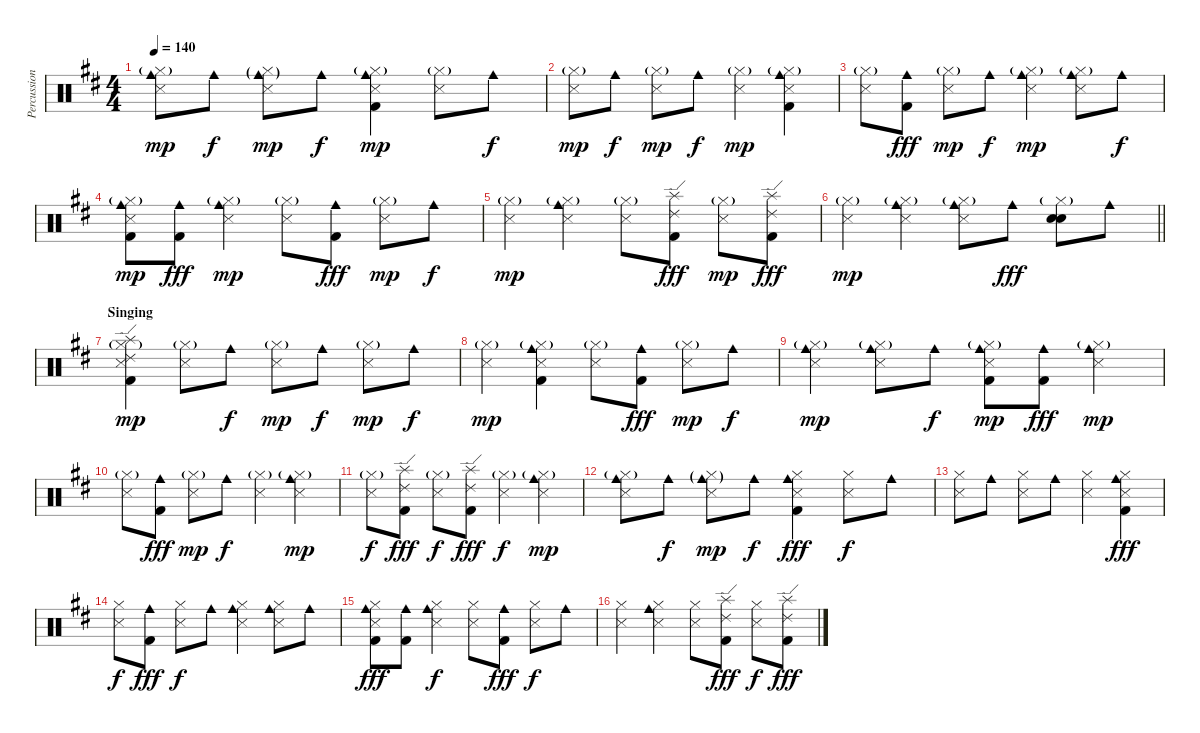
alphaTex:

\track ("Percussions" "Percussion") {instrument percussion}
\staff {score}
\articulation defaults
\ts (4 4)
\tempo 140
\clef neutral
\ks d
("Cowbell medium (hit)" "Snare (side stick) 3" "Hi-Hat (closed)"{g}).8{dy mp} "Cowbell medium (hit)".8{dy f} ("Cowbell medium (hit)"{g} "Snare (side stick) 3" "Hi-Hat (closed)"{g}).8{dy mp} "Cowbell medium (hit)".8{dy f} ("Cowbell medium (hit)" "Snare (side stick) 3" "Kick (hit) 2" "Hi-Hat (closed)"{g}).4{dy mp} ("Snare (side stick) 3" "Hi-Hat (closed)"{g}).8 "Cowbell medium (hit)".8{dy f} |
("Snare (side stick) 3" "Hi-Hat (closed)"{g}).8{dy mp} "Cowbell medium (hit)".8{dy f} ("Snare (side stick) 3" "Hi-Hat (closed)"{g}).8{dy mp} "Cowbell medium (hit)".8{dy f} ("Snare (side stick) 3" "Hi-Hat (closed)"{g}).4{dy mp} ("Cowbell medium (hit)" "Snare (side stick) 3" "Kick (hit) 2" "Hi-Hat (closed)"{g}).4 |
("Snare (side stick) 3" "Hi-Hat (closed)"{g}).8 ("Cowbell medium (hit)" "Kick (hit) 2").8{dy fff} ("Snare (side stick) 3" "Hi-Hat (closed)"{g}).8{dy mp} "Cowbell medium (hit)".8{dy f} ("Cowbell medium (hit)" "Snare (side stick) 3" "Hi-Hat (closed)"{g}).4{dy mp} ("Cowbell medium (hit)" "Snare (side stick) 3" "Hi-Hat (closed)"{g}).8 "Cowbell medium (hit)".8{dy f} |
("Cowbell medium (hit)" "Snare (side stick) 3" "Kick (hit) 2" "Hi-Hat (closed)"{g}).8{dy mp} ("Cowbell medium (hit)" "Kick (hit) 2").8{dy fff} ("Cowbell medium (hit)" "Snare (side stick) 3" "Hi-Hat (closed)"{g}).4{dy mp} ("Snare (side stick) 3" "Hi-Hat (closed)"{g}).8 ("Cowbell medium (hit)" "Kick (hit) 2").8{dy fff} ("Snare (side stick) 3" "Hi-Hat (closed)"{g}).8{dy mp} "Cowbell medium (hit)".8{dy f} |
("Snare (side stick) 3" "Hi-Hat (closed)"{g}).4{dy mp} ("Cowbell medium (hit)" "Snare (side stick) 3" "Hi-Hat (closed)"{g}).4 ("Snare (side stick) 3" "Hi-Hat (closed)"{g}).8 ("Ride (edge) 2" "Splash (hit)" "Kick (hit) 2").8{dy fff} ("Snare (side stick) 3" "Hi-Hat (closed)"{g}).8{dy mp} ("Ride (edge) 2" "Splash (hit)" "Kick (hit) 2").8{dy fff} |
\barLineRight lightlight
("Snare (side stick) 3" "Hi-Hat (closed)"{g}).4{dy mp} ("Cowbell medium (hit)" "Snare (side stick) 3" "Hi-Hat (closed)"{g}).4 ("Cowbell medium (hit)" "Snare (side stick) 3" "Hi-Hat (closed)"{g}).8 "Cowbell medium (hit)".8{dy fff} ("Electric Snare (hit)" "Snare (hit) 2" "Hi-Hat (closed)"{g}).8 "Cowbell medium (hit)".8 |
\section ("" "Singing")
("Splash (hit)" "Ride (edge) 2" "Snare (side stick) 3" "Kick (hit) 2" "Hi-Hat (closed)"{g}).4{dy mp} ("Snare (side stick) 3" "Hi-Hat (closed)"{g}).8 "Cowbell medium (hit)".8{dy f} ("Snare (side stick) 3" "Hi-Hat (closed)"{g}).8{dy mp} "Cowbell medium (hit)".8{dy f} ("Snare (side stick) 3" "Hi-Hat (closed)"{g}).8{dy mp} "Cowbell medium (hit)".8{dy f} |
("Snare (side stick) 3" "Hi-Hat (closed)"{g}).4{dy mp} ("Cowbell medium (hit)" "Snare (side stick) 3" "Kick (hit) 2" "Hi-Hat (closed)"{g}).4 ("Snare (side stick) 3" "Hi-Hat (closed)"{g}).8 ("Cowbell medium (hit)" "Kick (hit) 2").8{dy fff} ("Snare (side stick) 3" "Hi-Hat (closed)"{g}).8{dy mp} "Cowbell medium (hit)".8{dy f} |
("Cowbell medium (hit)" "Snare (side stick) 3" "Hi-Hat (closed)"{g}).4{dy mp} ("Cowbell medium (hit)" "Snare (side stick) 3" "Hi-Hat (closed)"{g}).8 "Cowbell medium (hit)".8{dy f} ("Cowbell medium (hit)" "Snare (side stick) 3" "Kick (hit) 2" "Hi-Hat (closed)"{g}).8{dy mp} ("Cowbell medium (hit)" "Kick (hit) 2").8{dy fff} ("Cowbell medium (hit)" "Snare (side stick) 3" "Hi-Hat (closed)"{g}).4{dy mp} |
("Snare (side stick) 3" "Hi-Hat (closed)"{g}).8 ("Cowbell medium (hit)" "Kick (hit) 2").8{dy fff} ("Snare (side stick) 3" "Hi-Hat (closed)"{g}).8{dy mp} "Cowbell medium (hit)".8{dy f} ("Snare (side stick) 3" "Hi-Hat (closed)"{g}).4 ("Cowbell medium (hit)" "Snare (side stick) 3" "Hi-Hat (closed)"{g}).4{dy mp} |
("Snare (side stick) 3" "Hi-Hat (closed)"{g}).8{dy f} ("Ride (edge) 2" "Splash (hit)" "Kick (hit) 2").8{dy fff} ("Snare (side stick) 3" "Hi-Hat (closed)"{g}).8{dy f} ("Ride (edge) 2" "Splash (hit)" "Kick (hit) 2").8{dy fff} ("Snare (side stick) 3" "Hi-Hat (closed)"{g}).4{dy f} ("Cowbell medium (hit)" "Snare (side stick) 3" "Hi-Hat (closed)"{g}).4{dy mp} |
("Cowbell medium (hit)" "Snare (side stick) 3" "Hi-Hat (closed)"{g}).8 "Cowbell medium (hit)".8{dy f} ("Cowbell medium (hit)"{g} "Snare (side stick) 3" "Hi-Hat (closed)"{g}).8{dy mp} "Cowbell medium (hit)".8{dy f} ("Cowbell medium (hit)" "Snare (side stick) 3" "Kick (hit) 2" "Hi-Hat (closed)").4{dy fff} ("Snare (side stick) 3" "Hi-Hat (closed)").8{dy f} "Cowbell medium (hit)".8 |
("Snare (side stick) 3" "Hi-Hat (closed)").8 "Cowbell medium (hit)".8 ("Snare (side stick) 3" "Hi-Hat (closed)").8 "Cowbell medium (hit)".8 ("Snare (side stick) 3" "Hi-Hat (closed)").4 ("Cowbell medium (hit)" "Snare (side stick) 3" "Kick (hit) 2" "Hi-Hat (closed)").4{dy fff} |
("Snare (side stick) 3" "Hi-Hat (closed)").8{dy f} ("Cowbell medium (hit)" "Kick (hit) 2").8{dy fff} ("Snare (side stick) 3" "Hi-Hat (closed)").8{dy f} "Cowbell medium (hit)".8 ("Cowbell medium (hit)" "Snare (side stick) 3" "Hi-Hat (closed)").4 ("Cowbell medium (hit)" "Snare (side stick) 3" "Hi-Hat (closed)").8 "Cowbell medium (hit)".8 |
("Cowbell medium (hit)" "Snare (side stick) 3" "Kick (hit) 2" "Hi-Hat (closed)").8{dy fff} ("Cowbell medium (hit)" "Kick (hit) 2").8 ("Cowbell medium (hit)" "Snare (side stick) 3" "Hi-Hat (closed)").4{dy f} ("Snare (side stick) 3" "Hi-Hat (closed)").8 ("Cowbell medium (hit)" "Kick (hit) 2").8{dy fff} ("Snare (side stick) 3" "Hi-Hat (closed)").8{dy f} "Cowbell medium (hit)".8 |
("Snare (side stick) 3" "Hi-Hat (closed)").4 ("Cowbell medium (hit)" "Snare (side stick) 3" "Hi-Hat (closed)").4 ("Snare (side stick) 3" "Hi-Hat (closed)").8 ("Ride (edge) 2" "Splash (hit)" "Kick (hit) 2").8{dy fff} ("Snare (side stick) 3" "Hi-Hat (closed)").8{dy f} ("Ride (edge) 2" "Splash (hit)" "Kick (hit) 2").8{dy fff}
